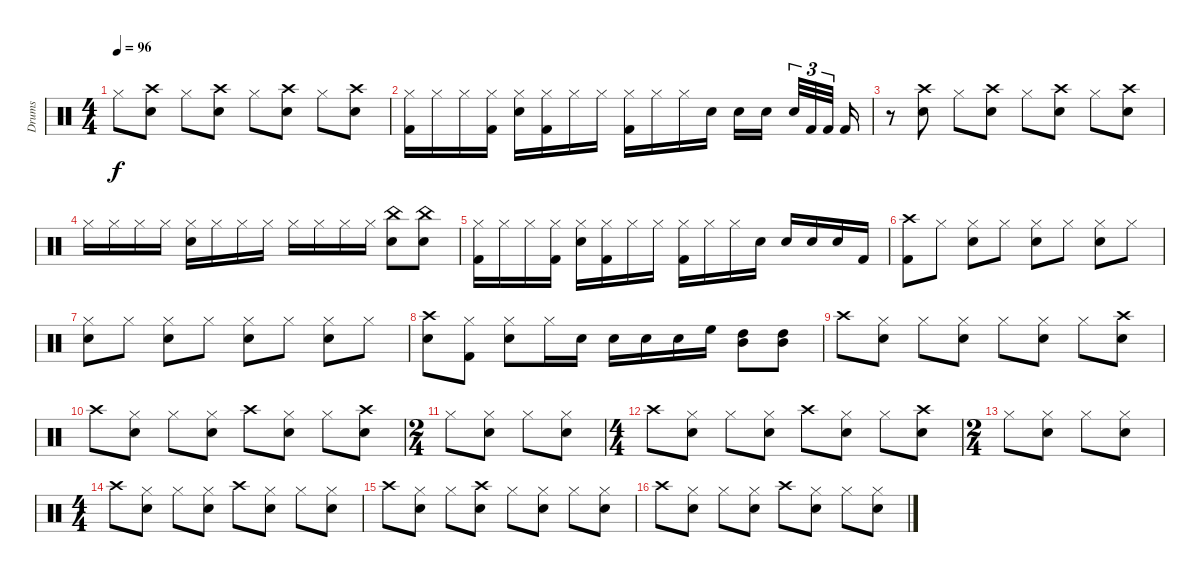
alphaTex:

\track ("Drums" "Drums") {instrument percussion}
\staff {score}
\articulation defaults
\ts (4 4)
\tempo 96
\clef neutral
\ks c "Hi-Hat (closed)".8{dy f}
("Crash high (hit)" "Snare (hit) 2").8 "Hi-Hat (closed)".8 ("Crash high (hit)" "Snare (hit) 2").8 "Hi-Hat (closed)".8 ("Crash high (hit)" "Snare (hit) 2").8 "Hi-Hat (closed)".8 ("Crash high (hit)" "Snare (hit) 2").8 |
("Hi-Hat (closed)" "Kick (hit) 2").16 "Hi-Hat (closed)".16 "Hi-Hat (closed)".16 ("Hi-Hat (closed)" "Kick (hit) 2").16 ("Hi-Hat (closed)" "Snare (hit) 2").16 ("Hi-Hat (closed)" "Kick (hit) 2").16 "Hi-Hat (closed)".16 "Hi-Hat (closed)".16 ("Hi-Hat (closed)" "Kick (hit) 2").16 "Hi-Hat (closed)".16 "Hi-Hat (closed)".16 "Snare (hit) 2".16 "Snare (hit) 2".16 "Snare (hit) 2".16{beam splitsecondary} "Snare (hit) 2".32{tu (3 2)} "Kick (hit) 2".32{tu (3 2)} "Kick (hit) 2".32{tu (3 2) beam splitsecondary} "Kick (hit) 2".16 |
r.8 ("Crash high (hit)" "Snare (hit) 2").8 "Hi-Hat (closed)".8 ("Crash high (hit)" "Snare (hit) 2").8 "Hi-Hat (closed)".8 ("Crash high (hit)" "Snare (hit) 2").8 "Hi-Hat (closed)".8 ("Crash high (hit)" "Snare (hit) 2").8 |
"Hi-Hat (closed)".16 "Hi-Hat (closed)".16 "Hi-Hat (closed)".16 "Hi-Hat (closed)".16 ("Hi-Hat (closed)" "Snare (hit) 2").16 "Hi-Hat (closed)".16 "Hi-Hat (closed)".16 "Hi-Hat (closed)".16 "Hi-Hat (closed)".16 "Hi-Hat (closed)".16 "Hi-Hat (closed)".16 "Hi-Hat (closed)".16 ("China (hit)" "Snare (hit) 2").8 ("China (hit)" "Snare (hit) 2").8 |
("Hi-Hat (closed)" "Kick (hit) 2").16 "Hi-Hat (closed)".16 "Hi-Hat (closed)".16 ("Hi-Hat (closed)" "Kick (hit) 2").16 ("Hi-Hat (closed)" "Snare (hit) 2").16 ("Hi-Hat (closed)" "Kick (hit) 2").16 "Hi-Hat (closed)".16 "Hi-Hat (closed)".16 ("Hi-Hat (closed)" "Kick (hit) 2").16 "Hi-Hat (closed)".16 "Hi-Hat (closed)".16 "Snare (hit) 2".16 "Snare (hit) 2".16 "Snare (hit) 2".16 "Snare (hit) 2".16 "Kick (hit) 2".16 |
("Crash high (hit)" "Kick (hit) 2").8 "Hi-Hat (closed)".8 ("Hi-Hat (closed)" "Snare (hit) 2").8 "Hi-Hat (closed)".8 ("Hi-Hat (closed)" "Snare (hit) 2").8 "Hi-Hat (closed)".8 ("Hi-Hat (closed)" "Snare (hit) 2").8 "Hi-Hat (closed)".8 |
("Hi-Hat (closed)" "Snare (hit) 2").8 "Hi-Hat (closed)".8 ("Hi-Hat (closed)" "Snare (hit) 2").8 "Hi-Hat (closed)".8 ("Hi-Hat (closed)" "Snare (hit) 2").8 "Hi-Hat (closed)".8 ("Hi-Hat (closed)" "Snare (hit) 2").8 "Hi-Hat (closed)".8 |
("Crash high (hit)" "Snare (hit) 2").8 ("Hi-Hat (closed)" "Kick (hit) 2").8 ("Hi-Hat (closed)" "Snare (hit) 2").8 "Hi-Hat (closed)".16 "Snare (hit) 2".16 "Snare (hit) 2".16 "Snare (hit) 2".16 "Snare (hit) 2".16 "High Floor Tom (hit)".16 ("High Tom (hit)" "Mid Tom (hit)").8 ("High Tom (hit)" "Mid Tom (hit)").8 |
"Crash high (hit)".8 ("Hi-Hat (closed)" "Snare (hit) 2").8 "Hi-Hat (closed)".8 ("Hi-Hat (closed)" "Snare (hit) 2").8 "Hi-Hat (closed)".8 ("Hi-Hat (closed)" "Snare (hit) 2").8 "Hi-Hat (closed)".8 ("Crash high (hit)" "Snare (hit) 2").8 |
"Crash high (hit)".8 ("Hi-Hat (closed)" "Snare (hit) 2").8 "Hi-Hat (closed)".8 ("Hi-Hat (closed)" "Snare (hit) 2").8 "Crash high (hit)".8 ("Hi-Hat (closed)" "Snare (hit) 2").8 "Hi-Hat (closed)".8 ("Crash high (hit)" "Snare (hit) 2").8 |
\ts (2 4)
"Hi-Hat (closed)".8 ("Hi-Hat (closed)" "Snare (hit) 2").8 "Hi-Hat (closed)".8 ("Hi-Hat (closed)" "Snare (hit) 2").8 |
\ts (4 4)
"Crash high (hit)".8 ("Hi-Hat (closed)" "Snare (hit) 2").8 "Hi-Hat (closed)".8 ("Hi-Hat (closed)" "Snare (hit) 2").8 "Crash high (hit)".8 ("Hi-Hat (closed)" "Snare (hit) 2").8 "Hi-Hat (closed)".8 ("Crash high (hit)" "Snare (hit) 2").8 |
\ts (2 4)
"Hi-Hat (closed)".8 ("Hi-Hat (closed)" "Snare (hit) 2").8 "Hi-Hat (closed)".8 ("Hi-Hat (closed)" "Snare (hit) 2").8 |
\ts (4 4)
"Crash high (hit)".8 ("Hi-Hat (closed)" "Snare (hit) 2").8 "Hi-Hat (closed)".8 ("Hi-Hat (closed)" "Snare (hit) 2").8 "Crash high (hit)".8 ("Hi-Hat (closed)" "Snare (hit) 2").8 "Hi-Hat (closed)".8 ("Hi-Hat (closed)" "Snare (hit) 2").8 |
"Crash high (hit)".8 ("Hi-Hat (closed)" "Snare (hit) 2").8 "Hi-Hat (closed)".8 ("Crash high (hit)" "Snare (hit) 2").8 "Hi-Hat (closed)".8 ("Hi-Hat (closed)" "Snare (hit) 2").8 "Hi-Hat (closed)".8 ("Hi-Hat (closed)" "Snare (hit) 2").8 |
"Crash high (hit)".8 ("Hi-Hat (closed)" "Snare (hit) 2").8 "Hi-Hat (closed)".8 ("Hi-Hat (closed)" "Snare (hit) 2").8 "Crash high (hit)".8 ("Hi-Hat (closed)" "Snare (hit) 2").8 "Hi-Hat (closed)".8 ("Hi-Hat (closed)" "Snare (hit) 2").8
